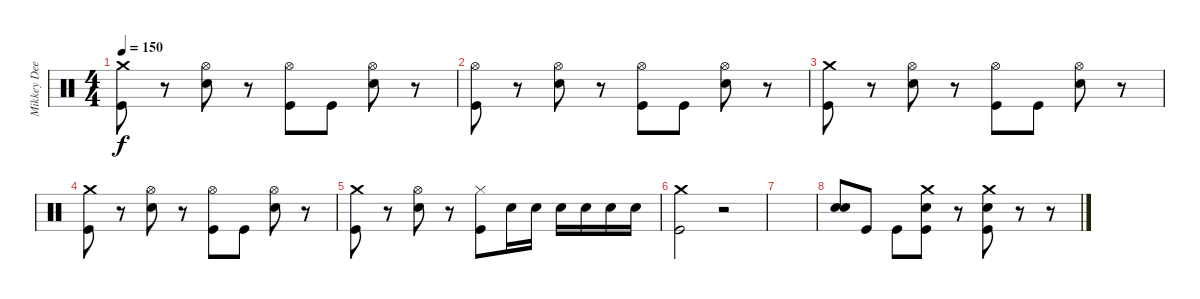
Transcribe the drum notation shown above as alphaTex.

\track ("Mikkey Dee" "Mikkey Dee") {instrument percussion}
\staff {score}
\articulation defaults
\ts (4 4)
\tempo 150
\clef neutral
\ks c
("Crash medium (hit)" "Kick (hit)").8{dy f} r.8 ("Hi-Hat (open)" "Snare (hit) 2").8 r.8 ("Hi-Hat (open)" "Kick (hit)").8 "Kick (hit)".8 ("Hi-Hat (open)" "Snare (hit) 2").8 r.8 |
("Hi-Hat (open)" "Kick (hit)").8 r.8 ("Hi-Hat (open)" "Snare (hit) 2").8 r.8 ("Hi-Hat (open)" "Kick (hit)").8 "Kick (hit)".8 ("Hi-Hat (open)" "Snare (hit) 2").8 r.8 |
("Crash medium (hit)" "Kick (hit)").8 r.8 ("Hi-Hat (open)" "Snare (hit) 2").8 r.8 ("Hi-Hat (open)" "Kick (hit)").8 "Kick (hit)".8 ("Hi-Hat (open)" "Snare (hit) 2").8 r.8 |
("Crash medium (hit)" "Kick (hit)").8 r.8 ("Hi-Hat (open)" "Snare (hit) 2").8 r.8 ("Hi-Hat (open)" "Kick (hit)").8 "Kick (hit)".8 ("Hi-Hat (open)" "Snare (hit) 2").8 r.8 |
("Crash medium (hit)" "Kick (hit)").8 r.8 ("Hi-Hat (open)" "Snare (hit) 2").8 r.8 ("Hi-Hat (closed)" "Kick (hit)").8 "Snare (hit) 2".16 "Snare (hit) 2".16 "Snare (hit) 2".16 "Snare (hit) 2".16 "Snare (hit) 2".16 "Snare (hit) 2".16 |
("Crash medium (hit)" "Kick (hit)").2 r.2 |
|
("Snare (hit) 2" "Snare (hit) 2").8 "Kick (hit)".8 "Kick (hit)".8 ("Crash medium (hit)" "Kick (hit)" "Snare (hit) 2").8 r.8 ("Crash medium (hit)" "Kick (hit)" "Snare (hit) 2").8 r.8 r.8
